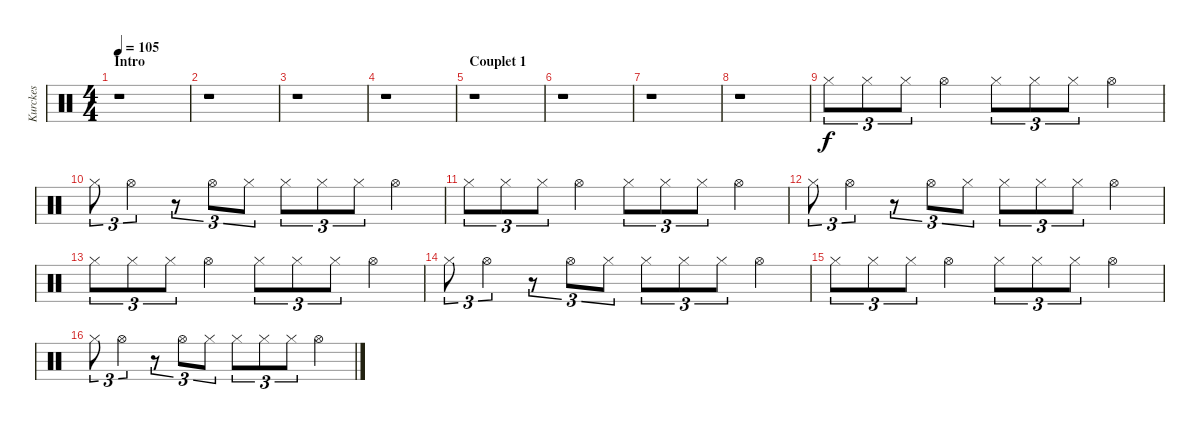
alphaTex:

\track ("Kurckes" "Kurckes") {instrument percussion}
\staff {score}
\articulation defaults
\ts (4 4)
\section ("" "Intro")
\tempo 105
\clef neutral
\ks c
r.1{dy f volume 13} |
r.1 |
r.1 |
r.1 |
\section ("" "Couplet 1")
r.1 |
r.1 |
r.1 |
r.1 |
"Hi-Hat (closed)".8{tu (3 2)} "Hi-Hat (closed)".8{tu (3 2)} "Hi-Hat (closed)".8{tu (3 2)} "Hi-Hat (open)".4 "Hi-Hat (closed)".8{tu (3 2)} "Hi-Hat (closed)".8{tu (3 2)} "Hi-Hat (closed)".8{tu (3 2)} "Hi-Hat (open)".4 |
"Hi-Hat (closed)".8{tu (3 2)} "Hi-Hat (open)".4{tu (3 2)} r.8{tu (3 2)} "Hi-Hat (open)".8{tu (3 2)} "Hi-Hat (closed)".8{tu (3 2)} "Hi-Hat (closed)".8{tu (3 2)} "Hi-Hat (closed)".8{tu (3 2)} "Hi-Hat (closed)".8{tu (3 2)} "Hi-Hat (open)".4 |
"Hi-Hat (closed)".8{tu (3 2)} "Hi-Hat (closed)".8{tu (3 2)} "Hi-Hat (closed)".8{tu (3 2)} "Hi-Hat (open)".4 "Hi-Hat (closed)".8{tu (3 2)} "Hi-Hat (closed)".8{tu (3 2)} "Hi-Hat (closed)".8{tu (3 2)} "Hi-Hat (open)".4 |
"Hi-Hat (closed)".8{tu (3 2)} "Hi-Hat (open)".4{tu (3 2)} r.8{tu (3 2)} "Hi-Hat (open)".8{tu (3 2)} "Hi-Hat (closed)".8{tu (3 2)} "Hi-Hat (closed)".8{tu (3 2)} "Hi-Hat (closed)".8{tu (3 2)} "Hi-Hat (closed)".8{tu (3 2)} "Hi-Hat (open)".4 |
"Hi-Hat (closed)".8{tu (3 2)} "Hi-Hat (closed)".8{tu (3 2)} "Hi-Hat (closed)".8{tu (3 2)} "Hi-Hat (open)".4 "Hi-Hat (closed)".8{tu (3 2)} "Hi-Hat (closed)".8{tu (3 2)} "Hi-Hat (closed)".8{tu (3 2)} "Hi-Hat (open)".4 |
"Hi-Hat (closed)".8{tu (3 2)} "Hi-Hat (open)".4{tu (3 2)} r.8{tu (3 2)} "Hi-Hat (open)".8{tu (3 2)} "Hi-Hat (closed)".8{tu (3 2)} "Hi-Hat (closed)".8{tu (3 2)} "Hi-Hat (closed)".8{tu (3 2)} "Hi-Hat (closed)".8{tu (3 2)} "Hi-Hat (open)".4 |
"Hi-Hat (closed)".8{tu (3 2)} "Hi-Hat (closed)".8{tu (3 2)} "Hi-Hat (closed)".8{tu (3 2)} "Hi-Hat (open)".4 "Hi-Hat (closed)".8{tu (3 2)} "Hi-Hat (closed)".8{tu (3 2)} "Hi-Hat (closed)".8{tu (3 2)} "Hi-Hat (open)".4 |
"Hi-Hat (closed)".8{tu (3 2)} "Hi-Hat (open)".4{tu (3 2)} r.8{tu (3 2)} "Hi-Hat (open)".8{tu (3 2)} "Hi-Hat (closed)".8{tu (3 2)} "Hi-Hat (closed)".8{tu (3 2)} "Hi-Hat (closed)".8{tu (3 2)} "Hi-Hat (closed)".8{tu (3 2)} "Hi-Hat (open)".4
